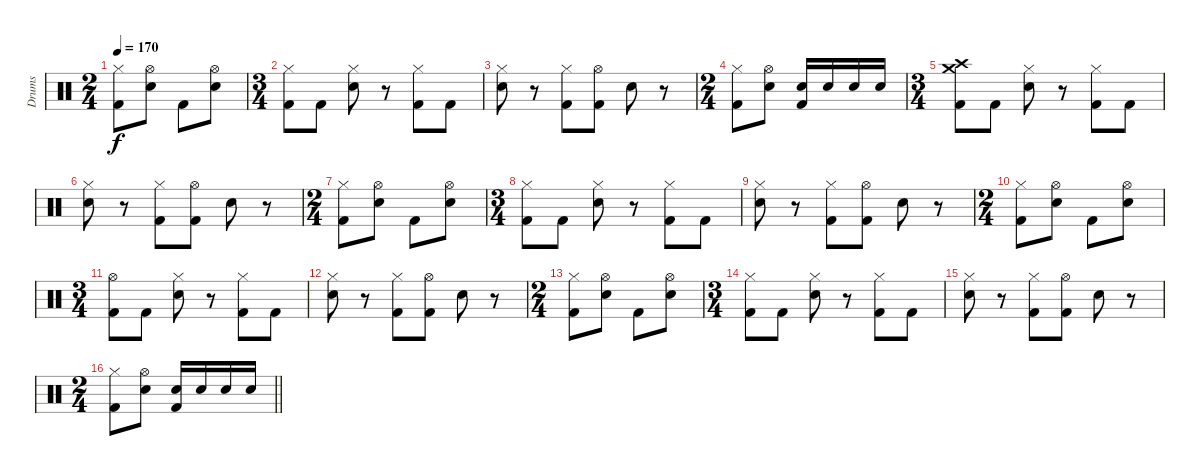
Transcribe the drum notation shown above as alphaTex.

\track ("Drums" "Drums") {instrument percussion}
\staff {score}
\articulation defaults
\ts (2 4)
\tempo 170
\clef neutral
\ks c
("Hi-Hat (closed)" "Kick (hit) 2").8{dy f} ("Hi-Hat (open)" "Electric Snare (hit)").8 "Kick (hit) 2".8 ("Hi-Hat (open)" "Electric Snare (hit)").8 |
\ts (3 4)
("Hi-Hat (closed)" "Kick (hit) 2").8 "Kick (hit) 2".8 ("Hi-Hat (closed)" "Electric Snare (hit)").8 r.8 ("Hi-Hat (closed)" "Kick (hit) 2").8 "Kick (hit) 2".8 |
("Hi-Hat (closed)" "Electric Snare (hit)").8 r.8 ("Hi-Hat (closed)" "Kick (hit) 2").8 ("Hi-Hat (open)" "Kick (hit) 2").8 "Electric Snare (hit)".8 r.8 |
\ts (2 4)
("Hi-Hat (closed)" "Kick (hit) 2").8 ("Hi-Hat (open)" "Electric Snare (hit)").8 ("Electric Snare (hit)" "Kick (hit) 2").16 "Electric Snare (hit)".16 "Electric Snare (hit)".16 "Electric Snare (hit)".16 |
\ts (3 4)
("Crash medium (hit)" "Crash high (hit)" "Kick (hit) 2").8 "Kick (hit) 2".8 ("Hi-Hat (closed)" "Electric Snare (hit)").8 r.8 ("Hi-Hat (closed)" "Kick (hit) 2").8 "Kick (hit) 2".8 |
("Hi-Hat (closed)" "Electric Snare (hit)").8 r.8 ("Hi-Hat (closed)" "Kick (hit) 2").8 ("Hi-Hat (open)" "Kick (hit) 2").8 "Electric Snare (hit)".8 r.8 |
\ts (2 4)
("Hi-Hat (closed)" "Kick (hit) 2").8 ("Hi-Hat (open)" "Electric Snare (hit)").8 "Kick (hit) 2".8 ("Hi-Hat (open)" "Electric Snare (hit)").8 |
\ts (3 4)
("Hi-Hat (closed)" "Kick (hit) 2").8 "Kick (hit) 2".8 ("Hi-Hat (closed)" "Electric Snare (hit)").8 r.8 ("Hi-Hat (closed)" "Kick (hit) 2").8 "Kick (hit) 2".8 |
("Hi-Hat (closed)" "Electric Snare (hit)").8 r.8 ("Hi-Hat (closed)" "Kick (hit) 2").8 ("Hi-Hat (open)" "Kick (hit) 2").8 "Electric Snare (hit)".8 r.8 |
\ts (2 4)
("Hi-Hat (closed)" "Kick (hit) 2").8 ("Hi-Hat (open)" "Electric Snare (hit)").8 "Kick (hit) 2".8 ("Hi-Hat (open)" "Electric Snare (hit)").8 |
\ts (3 4)
("Hi-Hat (open)" "Kick (hit) 2").8 "Kick (hit) 2".8 ("Hi-Hat (closed)" "Electric Snare (hit)").8 r.8 ("Hi-Hat (closed)" "Kick (hit) 2").8 "Kick (hit) 2".8 |
("Hi-Hat (closed)" "Electric Snare (hit)").8 r.8 ("Hi-Hat (closed)" "Kick (hit) 2").8 ("Hi-Hat (open)" "Kick (hit) 2").8 "Electric Snare (hit)".8 r.8 |
\ts (2 4)
("Hi-Hat (closed)" "Kick (hit) 2").8 ("Hi-Hat (open)" "Electric Snare (hit)").8 "Kick (hit) 2".8 ("Hi-Hat (open)" "Electric Snare (hit)").8 |
\ts (3 4)
("Hi-Hat (closed)" "Kick (hit) 2").8 "Kick (hit) 2".8 ("Hi-Hat (closed)" "Electric Snare (hit)").8 r.8 ("Hi-Hat (closed)" "Kick (hit) 2").8 "Kick (hit) 2".8 |
("Hi-Hat (closed)" "Electric Snare (hit)").8 r.8 ("Hi-Hat (closed)" "Kick (hit) 2").8 ("Hi-Hat (open)" "Kick (hit) 2").8 "Electric Snare (hit)".8 r.8 |
\ts (2 4)
\barLineRight lightlight
("Hi-Hat (closed)" "Kick (hit) 2").8 ("Hi-Hat (open)" "Electric Snare (hit)").8 ("Electric Snare (hit)" "Kick (hit) 2").16 "Electric Snare (hit)".16 "Electric Snare (hit)".16 "Electric Snare (hit)".16
